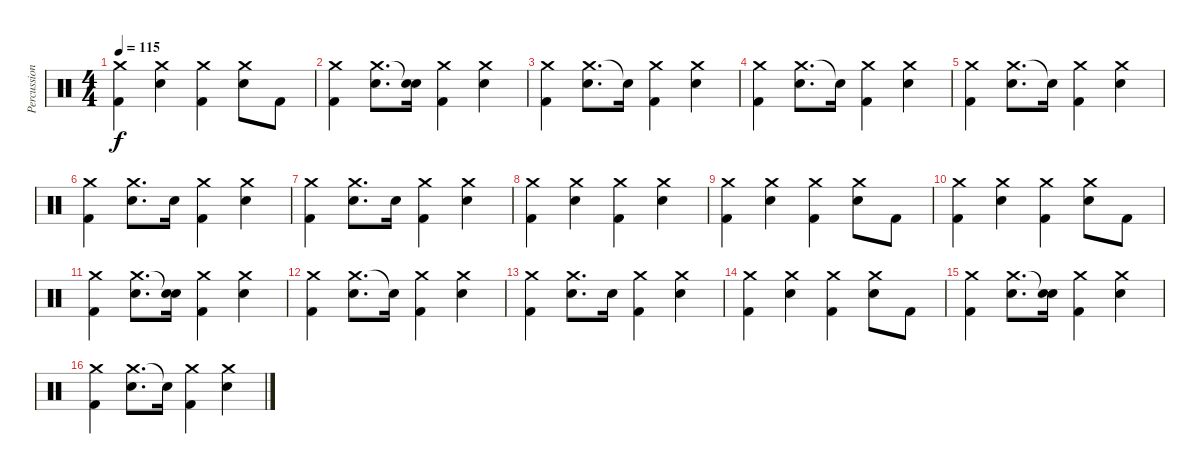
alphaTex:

\track ("Percussions" "Percussion") {instrument percussion}
\staff {score}
\articulation defaults
\ts (4 4)
\tempo 115
\clef neutral
\ks c
("Crash medium (hit)" "Kick (hit) 2").4{dy f} ("Crash medium (hit)" "Electric Snare (hit)").4 ("Crash medium (hit)" "Kick (hit) 2").4 ("Crash medium (hit)" "Electric Snare (hit)").8 "Kick (hit) 2".8 |
("Crash medium (hit)" "Kick (hit) 2").4 ("Crash medium (hit)" "Electric Snare (hit)").8{d} ("Snare (hit)"{t} "Electric Snare (hit)").16 ("Crash medium (hit)" "Kick (hit) 2").4 ("Crash medium (hit)" "Electric Snare (hit)").4 |
("Crash medium (hit)" "Kick (hit) 2").4 ("Crash medium (hit)" "Electric Snare (hit)").8{d} "Snare (hit)"{t}.16 ("Crash medium (hit)" "Kick (hit) 2").4 ("Crash medium (hit)" "Electric Snare (hit)").4 |
("Crash medium (hit)" "Kick (hit) 2").4 ("Crash medium (hit)" "Electric Snare (hit)").8{d} "Snare (hit)"{t}.16 ("Crash medium (hit)" "Kick (hit) 2").4 ("Crash medium (hit)" "Electric Snare (hit)").4 |
("Crash medium (hit)" "Kick (hit) 2").4 ("Crash medium (hit)" "Electric Snare (hit)").8{d} "Snare (hit)"{t}.16 ("Crash medium (hit)" "Kick (hit) 2").4 ("Crash medium (hit)" "Electric Snare (hit)").4 |
("Crash medium (hit)" "Kick (hit) 2").4 ("Crash medium (hit)" "Electric Snare (hit)").8{d} "Electric Snare (hit)".16 ("Crash medium (hit)" "Kick (hit) 2").4 ("Crash medium (hit)" "Electric Snare (hit)").4 |
("Crash medium (hit)" "Kick (hit) 2").4 ("Crash medium (hit)" "Electric Snare (hit)").8{d} "Electric Snare (hit)".16 ("Crash medium (hit)" "Kick (hit) 2").4 ("Crash medium (hit)" "Electric Snare (hit)").4 |
("Crash medium (hit)" "Kick (hit) 2").4 ("Crash medium (hit)" "Electric Snare (hit)").4 ("Crash medium (hit)" "Kick (hit) 2").4 ("Crash medium (hit)" "Electric Snare (hit)").4 |
("Crash medium (hit)" "Kick (hit) 2").4 ("Crash medium (hit)" "Electric Snare (hit)").4 ("Crash medium (hit)" "Kick (hit) 2").4 ("Crash medium (hit)" "Electric Snare (hit)").8 "Kick (hit) 2".8 |
("Crash medium (hit)" "Kick (hit) 2").4 ("Crash medium (hit)" "Electric Snare (hit)").4 ("Crash medium (hit)" "Kick (hit) 2").4 ("Crash medium (hit)" "Electric Snare (hit)").8 "Kick (hit) 2".8 |
("Crash medium (hit)" "Kick (hit) 2").4 ("Crash medium (hit)" "Electric Snare (hit)").8{d} ("Snare (hit)"{t} "Electric Snare (hit)").16 ("Crash medium (hit)" "Kick (hit) 2").4 ("Crash medium (hit)" "Electric Snare (hit)").4 |
("Crash medium (hit)" "Kick (hit) 2").4 ("Crash medium (hit)" "Electric Snare (hit)").8{d} "Snare (hit)"{t}.16 ("Crash medium (hit)" "Kick (hit) 2").4 ("Crash medium (hit)" "Electric Snare (hit)").4 |
("Crash medium (hit)" "Kick (hit) 2").4 ("Crash medium (hit)" "Electric Snare (hit)").8{d} "Electric Snare (hit)".16 ("Crash medium (hit)" "Kick (hit) 2").4 ("Crash medium (hit)" "Electric Snare (hit)").4 |
("Crash medium (hit)" "Kick (hit) 2").4 ("Crash medium (hit)" "Electric Snare (hit)").4 ("Crash medium (hit)" "Kick (hit) 2").4 ("Crash medium (hit)" "Electric Snare (hit)").8 "Kick (hit) 2".8 |
("Crash medium (hit)" "Kick (hit) 2").4 ("Crash medium (hit)" "Electric Snare (hit)").8{d} ("Snare (hit)"{t} "Electric Snare (hit)").16 ("Crash medium (hit)" "Kick (hit) 2").4 ("Crash medium (hit)" "Electric Snare (hit)").4 |
("Crash medium (hit)" "Kick (hit) 2").4 ("Crash medium (hit)" "Electric Snare (hit)").8{d} "Snare (hit)"{t}.16 ("Crash medium (hit)" "Kick (hit) 2").4 ("Crash medium (hit)" "Electric Snare (hit)").4
